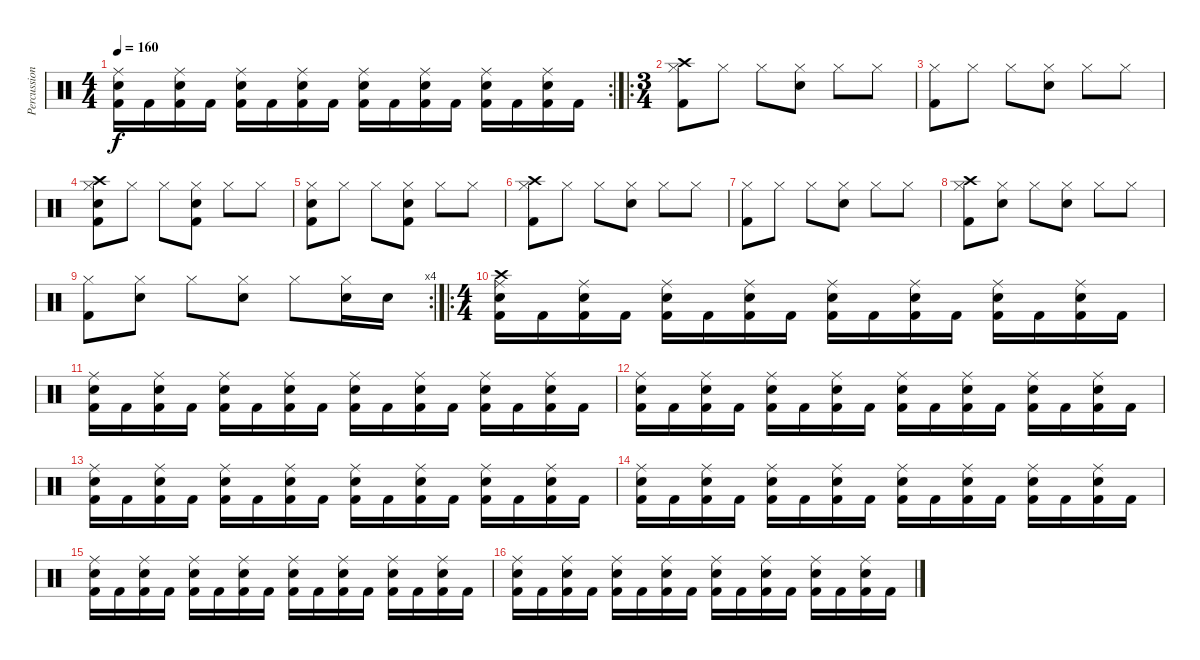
\track ("Percussion" "Percussion") {instrument percussion}
\staff {score}
\articulation defaults
\rc 2
\ts (4 4)
\tempo 160
\clef neutral
\ks c
("Kick (hit) 2" "Snare (hit) 2" "Ride (middle)").16{dy f} "Kick (hit) 2".16 ("Kick (hit) 2" "Snare (hit) 2" "Ride (middle)").16 "Kick (hit) 2".16 ("Kick (hit) 2" "Snare (hit) 2" "Ride (middle)").16 "Kick (hit) 2".16 ("Kick (hit) 2" "Snare (hit) 2" "Ride (middle)").16 "Kick (hit) 2".16 ("Kick (hit) 2" "Snare (hit) 2" "Ride (middle)").16 "Kick (hit) 2".16 ("Kick (hit) 2" "Snare (hit) 2" "Ride (middle)").16 "Kick (hit) 2".16 ("Kick (hit) 2" "Snare (hit) 2" "Ride (middle)").16 "Kick (hit) 2".16 ("Kick (hit) 2" "Snare (hit) 2" "Ride (middle)").16 "Kick (hit) 2".16 |
\ro
\ts (3 4)
("Hi-Hat (closed)" "Kick (hit) 2" "Crash high (hit)").8 "Hi-Hat (closed)".8 "Hi-Hat (closed)".8 ("Hi-Hat (closed)" "Snare (hit) 2").8 "Hi-Hat (closed)".8 "Hi-Hat (closed)".8 |
("Hi-Hat (closed)" "Kick (hit) 2").8 "Hi-Hat (closed)".8 "Hi-Hat (closed)".8 ("Hi-Hat (closed)" "Snare (hit) 2").8 "Hi-Hat (closed)".8 "Hi-Hat (closed)".8 |
("Hi-Hat (closed)" "Kick (hit) 2" "Snare (hit) 2" "Crash high (hit)").8 "Hi-Hat (closed)".8 "Hi-Hat (closed)".8 ("Hi-Hat (closed)" "Kick (hit) 2" "Snare (hit) 2").8 "Hi-Hat (closed)".8 "Hi-Hat (closed)".8 |
("Hi-Hat (closed)" "Kick (hit) 2" "Snare (hit) 2").8 "Hi-Hat (closed)".8 "Hi-Hat (closed)".8 ("Hi-Hat (closed)" "Kick (hit) 2" "Snare (hit) 2").8 "Hi-Hat (closed)".8 "Hi-Hat (closed)".8 |
("Hi-Hat (closed)" "Kick (hit) 2" "Crash high (hit)").8 "Hi-Hat (closed)".8 "Hi-Hat (closed)".8 ("Hi-Hat (closed)" "Snare (hit) 2").8 "Hi-Hat (closed)".8 "Hi-Hat (closed)".8 |
("Hi-Hat (closed)" "Kick (hit) 2").8 "Hi-Hat (closed)".8 "Hi-Hat (closed)".8 ("Hi-Hat (closed)" "Snare (hit) 2").8 "Hi-Hat (closed)".8 "Hi-Hat (closed)".8 |
("Hi-Hat (closed)" "Kick (hit) 2" "Crash high (hit)").8 ("Hi-Hat (closed)" "Snare (hit) 2").8 "Hi-Hat (closed)".8 ("Hi-Hat (closed)" "Snare (hit) 2").8 "Hi-Hat (closed)".8 "Hi-Hat (closed)".8 |
\rc 4
("Hi-Hat (closed)" "Kick (hit) 2").8 ("Hi-Hat (closed)" "Snare (hit) 2").8 "Hi-Hat (closed)".8 ("Hi-Hat (closed)" "Snare (hit) 2").8 "Hi-Hat (closed)".8 ("Hi-Hat (closed)" "Snare (hit) 2").16 "Snare (hit) 2".16 |
\ro
\ts (4 4)
("Kick (hit) 2" "Snare (hit) 2" "Ride (middle)" "Crash high (hit)").16 "Kick (hit) 2".16 ("Kick (hit) 2" "Snare (hit) 2" "Ride (middle)").16 "Kick (hit) 2".16 ("Kick (hit) 2" "Snare (hit) 2" "Ride (middle)").16 "Kick (hit) 2".16 ("Kick (hit) 2" "Snare (hit) 2" "Ride (middle)").16 "Kick (hit) 2".16 ("Kick (hit) 2" "Snare (hit) 2" "Ride (middle)").16 "Kick (hit) 2".16 ("Kick (hit) 2" "Snare (hit) 2" "Ride (middle)").16 "Kick (hit) 2".16 ("Kick (hit) 2" "Snare (hit) 2" "Ride (middle)").16 "Kick (hit) 2".16 ("Kick (hit) 2" "Snare (hit) 2" "Ride (middle)").16 "Kick (hit) 2".16 |
("Kick (hit) 2" "Snare (hit) 2" "Ride (middle)").16 "Kick (hit) 2".16 ("Kick (hit) 2" "Snare (hit) 2" "Ride (middle)").16 "Kick (hit) 2".16 ("Kick (hit) 2" "Snare (hit) 2" "Ride (middle)").16 "Kick (hit) 2".16 ("Kick (hit) 2" "Snare (hit) 2" "Ride (middle)").16 "Kick (hit) 2".16 ("Kick (hit) 2" "Snare (hit) 2" "Ride (middle)").16 "Kick (hit) 2".16 ("Kick (hit) 2" "Snare (hit) 2" "Ride (middle)").16 "Kick (hit) 2".16 ("Kick (hit) 2" "Snare (hit) 2" "Ride (middle)").16 "Kick (hit) 2".16 ("Kick (hit) 2" "Snare (hit) 2" "Ride (middle)").16 "Kick (hit) 2".16 |
("Kick (hit) 2" "Snare (hit) 2" "Ride (middle)").16 "Kick (hit) 2".16 ("Kick (hit) 2" "Snare (hit) 2" "Ride (middle)").16 "Kick (hit) 2".16 ("Kick (hit) 2" "Snare (hit) 2" "Ride (middle)").16 "Kick (hit) 2".16 ("Kick (hit) 2" "Snare (hit) 2" "Ride (middle)").16 "Kick (hit) 2".16 ("Kick (hit) 2" "Snare (hit) 2" "Ride (middle)").16 "Kick (hit) 2".16 ("Kick (hit) 2" "Snare (hit) 2" "Ride (middle)").16 "Kick (hit) 2".16 ("Kick (hit) 2" "Snare (hit) 2" "Ride (middle)").16 "Kick (hit) 2".16 ("Kick (hit) 2" "Snare (hit) 2" "Ride (middle)").16 "Kick (hit) 2".16 |
("Kick (hit) 2" "Snare (hit) 2" "Ride (middle)").16 "Kick (hit) 2".16 ("Kick (hit) 2" "Snare (hit) 2" "Ride (middle)").16 "Kick (hit) 2".16 ("Kick (hit) 2" "Snare (hit) 2" "Ride (middle)").16 "Kick (hit) 2".16 ("Kick (hit) 2" "Snare (hit) 2" "Ride (middle)").16 "Kick (hit) 2".16 ("Kick (hit) 2" "Snare (hit) 2" "Ride (middle)").16 "Kick (hit) 2".16 ("Kick (hit) 2" "Snare (hit) 2" "Ride (middle)").16 "Kick (hit) 2".16 ("Kick (hit) 2" "Snare (hit) 2" "Ride (middle)").16 "Kick (hit) 2".16 ("Kick (hit) 2" "Snare (hit) 2" "Ride (middle)").16 "Kick (hit) 2".16 |
("Kick (hit) 2" "Snare (hit) 2" "Ride (middle)").16 "Kick (hit) 2".16 ("Kick (hit) 2" "Snare (hit) 2" "Ride (middle)").16 "Kick (hit) 2".16 ("Kick (hit) 2" "Snare (hit) 2" "Ride (middle)").16 "Kick (hit) 2".16 ("Kick (hit) 2" "Snare (hit) 2" "Ride (middle)").16 "Kick (hit) 2".16 ("Kick (hit) 2" "Snare (hit) 2" "Ride (middle)").16 "Kick (hit) 2".16 ("Kick (hit) 2" "Snare (hit) 2" "Ride (middle)").16 "Kick (hit) 2".16 ("Kick (hit) 2" "Snare (hit) 2" "Ride (middle)").16 "Kick (hit) 2".16 ("Kick (hit) 2" "Snare (hit) 2" "Ride (middle)").16 "Kick (hit) 2".16 |
("Kick (hit) 2" "Snare (hit) 2" "Ride (middle)").16 "Kick (hit) 2".16 ("Kick (hit) 2" "Snare (hit) 2" "Ride (middle)").16 "Kick (hit) 2".16 ("Kick (hit) 2" "Snare (hit) 2" "Ride (middle)").16 "Kick (hit) 2".16 ("Kick (hit) 2" "Snare (hit) 2" "Ride (middle)").16 "Kick (hit) 2".16 ("Kick (hit) 2" "Snare (hit) 2" "Ride (middle)").16 "Kick (hit) 2".16 ("Kick (hit) 2" "Snare (hit) 2" "Ride (middle)").16 "Kick (hit) 2".16 ("Kick (hit) 2" "Snare (hit) 2" "Ride (middle)").16 "Kick (hit) 2".16 ("Kick (hit) 2" "Snare (hit) 2" "Ride (middle)").16 "Kick (hit) 2".16 |
("Kick (hit) 2" "Snare (hit) 2" "Ride (middle)").16 "Kick (hit) 2".16 ("Kick (hit) 2" "Snare (hit) 2" "Ride (middle)").16 "Kick (hit) 2".16 ("Kick (hit) 2" "Snare (hit) 2" "Ride (middle)").16 "Kick (hit) 2".16 ("Kick (hit) 2" "Snare (hit) 2" "Ride (middle)").16 "Kick (hit) 2".16 ("Kick (hit) 2" "Snare (hit) 2" "Ride (middle)").16 "Kick (hit) 2".16 ("Kick (hit) 2" "Snare (hit) 2" "Ride (middle)").16 "Kick (hit) 2".16 ("Kick (hit) 2" "Snare (hit) 2" "Ride (middle)").16 "Kick (hit) 2".16 ("Kick (hit) 2" "Snare (hit) 2" "Ride (middle)").16 "Kick (hit) 2".16
